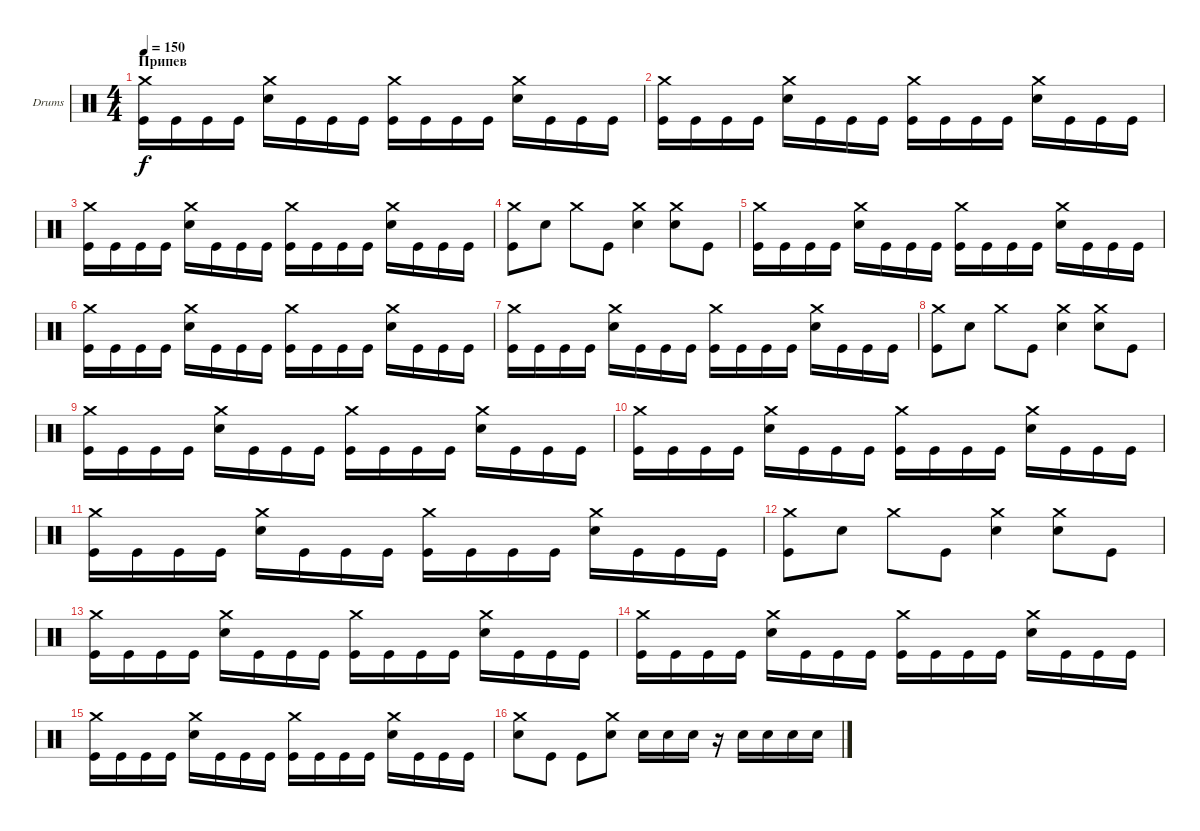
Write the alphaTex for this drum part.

\defaultSystemsLayout 4
\bracketExtendMode groupsimilarinstruments
\firstSystemTrackNameOrientation horizontal
\otherSystemsTrackNameOrientation horizontal
\track ("Drumkit" "Drums") {instrument percussion}
\staff {score}
\articulation defaults
\ts (4 4)
\section ("" "Припев")
\tempo 150
\clef neutral
\ks c
("Kick (hit)" "Crash medium (hit)").16{dy f} "Kick (hit)".16 "Kick (hit)".16 "Kick (hit)".16 ("Snare (hit) 2" "Crash medium (hit)").16 "Kick (hit)".16 "Kick (hit)".16 "Kick (hit)".16 ("Kick (hit)" "Crash medium (hit)").16 "Kick (hit)".16 "Kick (hit)".16 "Kick (hit)".16 ("Snare (hit) 2" "Crash medium (hit)").16 "Kick (hit)".16 "Kick (hit)".16 "Kick (hit)".16 |
("Kick (hit)" "Crash medium (hit)").16 "Kick (hit)".16 "Kick (hit)".16 "Kick (hit)".16 ("Snare (hit) 2" "Crash medium (hit)").16 "Kick (hit)".16 "Kick (hit)".16 "Kick (hit)".16 ("Kick (hit)" "Crash medium (hit)").16 "Kick (hit)".16 "Kick (hit)".16 "Kick (hit)".16 ("Snare (hit) 2" "Crash medium (hit)").16 "Kick (hit)".16 "Kick (hit)".16 "Kick (hit)".16 |
("Kick (hit)" "Crash medium (hit)").16 "Kick (hit)".16 "Kick (hit)".16 "Kick (hit)".16 ("Snare (hit) 2" "Crash medium (hit)").16 "Kick (hit)".16 "Kick (hit)".16 "Kick (hit)".16 ("Kick (hit)" "Crash medium (hit)").16 "Kick (hit)".16 "Kick (hit)".16 "Kick (hit)".16 ("Snare (hit) 2" "Crash medium (hit)").16 "Kick (hit)".16 "Kick (hit)".16 "Kick (hit)".16 |
("Crash medium (hit)" "Kick (hit)").8 "Snare (hit) 2".8 "Crash medium (hit)".8 "Kick (hit)".8 ("Snare (hit) 2" "Crash medium (hit)").4 ("Snare (hit) 2" "Crash medium (hit)").8 "Kick (hit)".8 |
("Kick (hit)" "Crash medium (hit)").16 "Kick (hit)".16 "Kick (hit)".16 "Kick (hit)".16 ("Snare (hit) 2" "Crash medium (hit)").16 "Kick (hit)".16 "Kick (hit)".16 "Kick (hit)".16 ("Kick (hit)" "Crash medium (hit)").16 "Kick (hit)".16 "Kick (hit)".16 "Kick (hit)".16 ("Snare (hit) 2" "Crash medium (hit)").16 "Kick (hit)".16 "Kick (hit)".16 "Kick (hit)".16 |
("Kick (hit)" "Crash medium (hit)").16 "Kick (hit)".16 "Kick (hit)".16 "Kick (hit)".16 ("Snare (hit) 2" "Crash medium (hit)").16 "Kick (hit)".16 "Kick (hit)".16 "Kick (hit)".16 ("Kick (hit)" "Crash medium (hit)").16 "Kick (hit)".16 "Kick (hit)".16 "Kick (hit)".16 ("Snare (hit) 2" "Crash medium (hit)").16 "Kick (hit)".16 "Kick (hit)".16 "Kick (hit)".16 |
("Kick (hit)" "Crash medium (hit)").16 "Kick (hit)".16 "Kick (hit)".16 "Kick (hit)".16 ("Snare (hit) 2" "Crash medium (hit)").16 "Kick (hit)".16 "Kick (hit)".16 "Kick (hit)".16 ("Kick (hit)" "Crash medium (hit)").16 "Kick (hit)".16 "Kick (hit)".16 "Kick (hit)".16 ("Snare (hit) 2" "Crash medium (hit)").16 "Kick (hit)".16 "Kick (hit)".16 "Kick (hit)".16 |
("Crash medium (hit)" "Kick (hit)").8 "Snare (hit) 2".8 "Crash medium (hit)".8 "Kick (hit)".8 ("Snare (hit) 2" "Crash medium (hit)").4 ("Snare (hit) 2" "Crash medium (hit)").8 "Kick (hit)".8 |
("Kick (hit)" "Crash medium (hit)").16 "Kick (hit)".16 "Kick (hit)".16 "Kick (hit)".16 ("Snare (hit) 2" "Crash medium (hit)").16 "Kick (hit)".16 "Kick (hit)".16 "Kick (hit)".16 ("Kick (hit)" "Crash medium (hit)").16 "Kick (hit)".16 "Kick (hit)".16 "Kick (hit)".16 ("Snare (hit) 2" "Crash medium (hit)").16 "Kick (hit)".16 "Kick (hit)".16 "Kick (hit)".16 |
("Kick (hit)" "Crash medium (hit)").16 "Kick (hit)".16 "Kick (hit)".16 "Kick (hit)".16 ("Snare (hit) 2" "Crash medium (hit)").16 "Kick (hit)".16 "Kick (hit)".16 "Kick (hit)".16 ("Kick (hit)" "Crash medium (hit)").16 "Kick (hit)".16 "Kick (hit)".16 "Kick (hit)".16 ("Snare (hit) 2" "Crash medium (hit)").16 "Kick (hit)".16 "Kick (hit)".16 "Kick (hit)".16 |
("Kick (hit)" "Crash medium (hit)").16 "Kick (hit)".16 "Kick (hit)".16 "Kick (hit)".16 ("Snare (hit) 2" "Crash medium (hit)").16 "Kick (hit)".16 "Kick (hit)".16 "Kick (hit)".16 ("Kick (hit)" "Crash medium (hit)").16 "Kick (hit)".16 "Kick (hit)".16 "Kick (hit)".16 ("Snare (hit) 2" "Crash medium (hit)").16 "Kick (hit)".16 "Kick (hit)".16 "Kick (hit)".16 |
("Crash medium (hit)" "Kick (hit)").8 "Snare (hit) 2".8 "Crash medium (hit)".8 "Kick (hit)".8 ("Snare (hit) 2" "Crash medium (hit)").4 ("Snare (hit) 2" "Crash medium (hit)").8 "Kick (hit)".8 |
("Kick (hit)" "Crash medium (hit)").16 "Kick (hit)".16 "Kick (hit)".16 "Kick (hit)".16 ("Snare (hit) 2" "Crash medium (hit)").16 "Kick (hit)".16 "Kick (hit)".16 "Kick (hit)".16 ("Kick (hit)" "Crash medium (hit)").16 "Kick (hit)".16 "Kick (hit)".16 "Kick (hit)".16 ("Snare (hit) 2" "Crash medium (hit)").16 "Kick (hit)".16 "Kick (hit)".16 "Kick (hit)".16 |
("Kick (hit)" "Crash medium (hit)").16 "Kick (hit)".16 "Kick (hit)".16 "Kick (hit)".16 ("Snare (hit) 2" "Crash medium (hit)").16 "Kick (hit)".16 "Kick (hit)".16 "Kick (hit)".16 ("Kick (hit)" "Crash medium (hit)").16 "Kick (hit)".16 "Kick (hit)".16 "Kick (hit)".16 ("Snare (hit) 2" "Crash medium (hit)").16 "Kick (hit)".16 "Kick (hit)".16 "Kick (hit)".16 |
("Kick (hit)" "Crash medium (hit)").16 "Kick (hit)".16 "Kick (hit)".16 "Kick (hit)".16 ("Snare (hit) 2" "Crash medium (hit)").16 "Kick (hit)".16 "Kick (hit)".16 "Kick (hit)".16 ("Kick (hit)" "Crash medium (hit)").16 "Kick (hit)".16 "Kick (hit)".16 "Kick (hit)".16 ("Snare (hit) 2" "Crash medium (hit)").16 "Kick (hit)".16 "Kick (hit)".16 "Kick (hit)".16 |
("Crash medium (hit)" "Snare (hit) 2").8 "Kick (hit)".8 "Kick (hit)".8 ("Snare (hit) 2" "Crash medium (hit)").8 "Snare (hit) 2".16 "Snare (hit) 2".16 "Snare (hit) 2".16 r.16 "Snare (hit) 2".16 "Snare (hit) 2".16 "Snare (hit) 2".16 "Snare (hit) 2".16
